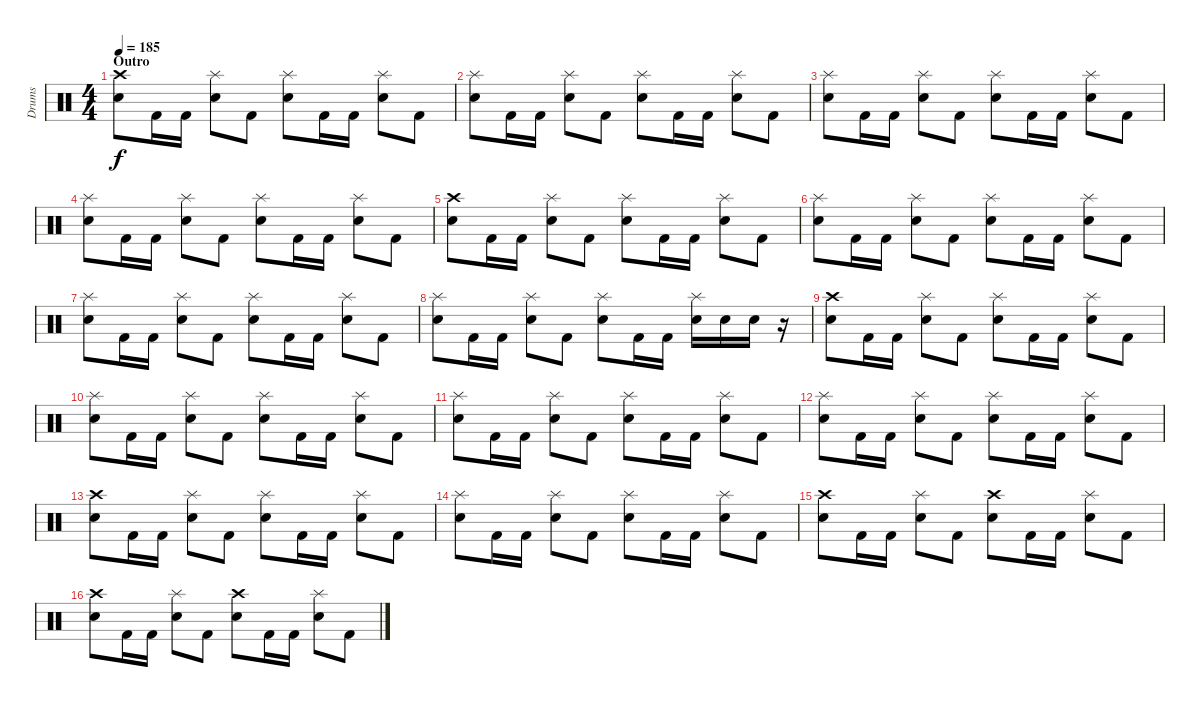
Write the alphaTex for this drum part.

\track ("Drums" "Drums") {instrument percussion}
\staff {score}
\articulation defaults
\ts (4 4)
\section ("" "Outro")
\tempo 185
\clef neutral
\ks c
("Crash high (hit)" "Electric Snare (hit)").8{dy f} "Kick (hit) 2".16 "Kick (hit) 2".16 ("Splash (hit)" "Electric Snare (hit)").8 "Kick (hit) 2".8 ("Splash (hit)" "Electric Snare (hit)").8 "Kick (hit) 2".16 "Kick (hit) 2".16 ("Splash (hit)" "Electric Snare (hit)").8 "Kick (hit) 2".8 |
("Splash (hit)" "Electric Snare (hit)").8 "Kick (hit) 2".16 "Kick (hit) 2".16 ("Splash (hit)" "Electric Snare (hit)").8 "Kick (hit) 2".8 ("Splash (hit)" "Electric Snare (hit)").8 "Kick (hit) 2".16 "Kick (hit) 2".16 ("Splash (hit)" "Electric Snare (hit)").8 "Kick (hit) 2".8 |
("Splash (hit)" "Electric Snare (hit)").8 "Kick (hit) 2".16 "Kick (hit) 2".16 ("Splash (hit)" "Electric Snare (hit)").8 "Kick (hit) 2".8 ("Splash (hit)" "Electric Snare (hit)").8 "Kick (hit) 2".16 "Kick (hit) 2".16 ("Splash (hit)" "Electric Snare (hit)").8 "Kick (hit) 2".8 |
("Splash (hit)" "Electric Snare (hit)").8 "Kick (hit) 2".16 "Kick (hit) 2".16 ("Splash (hit)" "Electric Snare (hit)").8 "Kick (hit) 2".8 ("Splash (hit)" "Electric Snare (hit)").8 "Kick (hit) 2".16 "Kick (hit) 2".16 ("Splash (hit)" "Electric Snare (hit)").8 "Kick (hit) 2".8 |
("Crash high (hit)" "Electric Snare (hit)").8 "Kick (hit) 2".16 "Kick (hit) 2".16 ("Splash (hit)" "Electric Snare (hit)").8 "Kick (hit) 2".8 ("Splash (hit)" "Electric Snare (hit)").8 "Kick (hit) 2".16 "Kick (hit) 2".16 ("Splash (hit)" "Electric Snare (hit)").8 "Kick (hit) 2".8 |
("Splash (hit)" "Electric Snare (hit)").8 "Kick (hit) 2".16 "Kick (hit) 2".16 ("Splash (hit)" "Electric Snare (hit)").8 "Kick (hit) 2".8 ("Splash (hit)" "Electric Snare (hit)").8 "Kick (hit) 2".16 "Kick (hit) 2".16 ("Splash (hit)" "Electric Snare (hit)").8 "Kick (hit) 2".8 |
("Splash (hit)" "Electric Snare (hit)").8 "Kick (hit) 2".16 "Kick (hit) 2".16 ("Splash (hit)" "Electric Snare (hit)").8 "Kick (hit) 2".8 ("Splash (hit)" "Electric Snare (hit)").8 "Kick (hit) 2".16 "Kick (hit) 2".16 ("Splash (hit)" "Electric Snare (hit)").8 "Kick (hit) 2".8 |
("Splash (hit)" "Electric Snare (hit)").8 "Kick (hit) 2".16 "Kick (hit) 2".16 ("Splash (hit)" "Electric Snare (hit)").8 "Kick (hit) 2".8 ("Splash (hit)" "Electric Snare (hit)").8 "Kick (hit) 2".16 "Kick (hit) 2".16 ("Splash (hit)" "Electric Snare (hit)").16 "Electric Snare (hit)".16 "Electric Snare (hit)".16 r.16 |
("Crash high (hit)" "Electric Snare (hit)").8 "Kick (hit) 2".16 "Kick (hit) 2".16 ("Splash (hit)" "Electric Snare (hit)").8 "Kick (hit) 2".8 ("Splash (hit)" "Electric Snare (hit)").8 "Kick (hit) 2".16 "Kick (hit) 2".16 ("Splash (hit)" "Electric Snare (hit)").8 "Kick (hit) 2".8 |
("Splash (hit)" "Electric Snare (hit)").8 "Kick (hit) 2".16 "Kick (hit) 2".16 ("Splash (hit)" "Electric Snare (hit)").8 "Kick (hit) 2".8 ("Splash (hit)" "Electric Snare (hit)").8 "Kick (hit) 2".16 "Kick (hit) 2".16 ("Splash (hit)" "Electric Snare (hit)").8 "Kick (hit) 2".8 |
("Splash (hit)" "Electric Snare (hit)").8 "Kick (hit) 2".16 "Kick (hit) 2".16 ("Splash (hit)" "Electric Snare (hit)").8 "Kick (hit) 2".8 ("Splash (hit)" "Electric Snare (hit)").8 "Kick (hit) 2".16 "Kick (hit) 2".16 ("Splash (hit)" "Electric Snare (hit)").8 "Kick (hit) 2".8 |
("Splash (hit)" "Electric Snare (hit)").8 "Kick (hit) 2".16 "Kick (hit) 2".16 ("Splash (hit)" "Electric Snare (hit)").8 "Kick (hit) 2".8 ("Splash (hit)" "Electric Snare (hit)").8 "Kick (hit) 2".16 "Kick (hit) 2".16 ("Splash (hit)" "Electric Snare (hit)").8 "Kick (hit) 2".8 |
("Crash high (hit)" "Electric Snare (hit)").8 "Kick (hit) 2".16 "Kick (hit) 2".16 ("Splash (hit)" "Electric Snare (hit)").8 "Kick (hit) 2".8 ("Splash (hit)" "Electric Snare (hit)").8 "Kick (hit) 2".16 "Kick (hit) 2".16 ("Splash (hit)" "Electric Snare (hit)").8 "Kick (hit) 2".8 |
("Splash (hit)" "Electric Snare (hit)").8 "Kick (hit) 2".16 "Kick (hit) 2".16 ("Splash (hit)" "Electric Snare (hit)").8 "Kick (hit) 2".8 ("Splash (hit)" "Electric Snare (hit)").8 "Kick (hit) 2".16 "Kick (hit) 2".16 ("Splash (hit)" "Electric Snare (hit)").8 "Kick (hit) 2".8 |
("Crash high (hit)" "Electric Snare (hit)").8 "Kick (hit) 2".16 "Kick (hit) 2".16 ("Splash (hit)" "Electric Snare (hit)").8 "Kick (hit) 2".8 ("Crash high (hit)" "Electric Snare (hit)").8 "Kick (hit) 2".16 "Kick (hit) 2".16 ("Splash (hit)" "Electric Snare (hit)").8 "Kick (hit) 2".8 |
("Crash high (hit)" "Electric Snare (hit)").8 "Kick (hit) 2".16 "Kick (hit) 2".16 ("Splash (hit)" "Electric Snare (hit)").8 "Kick (hit) 2".8 ("Crash high (hit)" "Electric Snare (hit)").8 "Kick (hit) 2".16 "Kick (hit) 2".16 ("Splash (hit)" "Electric Snare (hit)").8 "Kick (hit) 2".8
